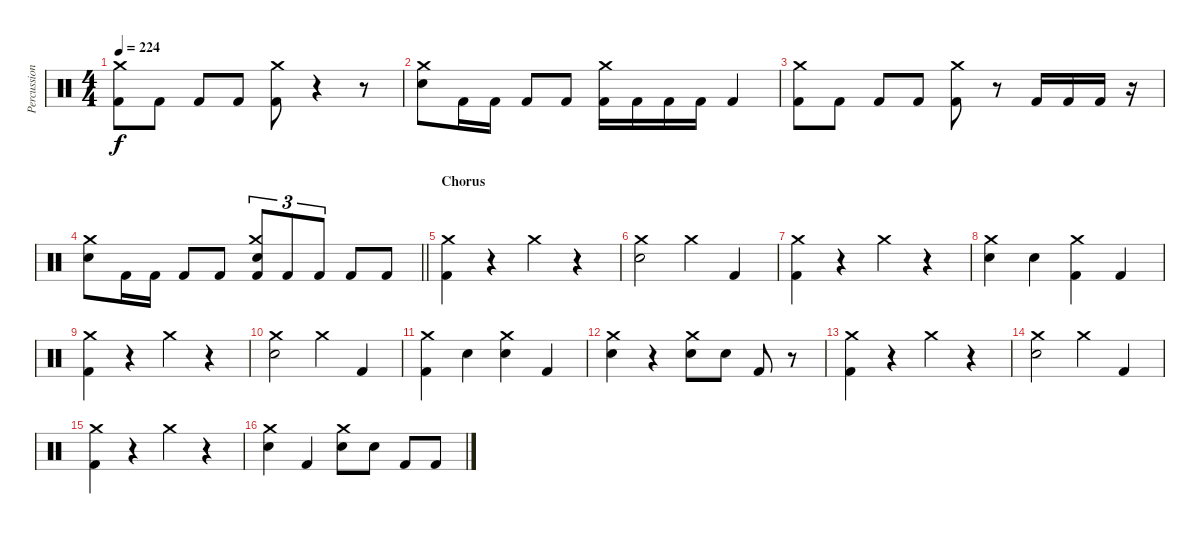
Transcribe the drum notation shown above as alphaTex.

\track ("Percussion" "Percussion") {instrument percussion}
\staff {score}
\articulation defaults
\ts (4 4)
\tempo 224
\clef neutral
\ks c
("Kick (hit) 2" "Crash medium (hit)").8{dy f} "Kick (hit) 2".8 "Kick (hit) 2".8 "Kick (hit) 2".8 ("Kick (hit) 2" "Crash medium (hit)").8 r.4 r.8 |
("Snare (hit) 2" "Crash medium (hit)").8 "Kick (hit) 2".16 "Kick (hit) 2".16 "Kick (hit) 2".8 "Kick (hit) 2".8 ("Kick (hit) 2" "Crash medium (hit)").16 "Kick (hit) 2".16 "Kick (hit) 2".16 "Kick (hit) 2".16 "Kick (hit) 2".4 |
("Kick (hit) 2" "Crash medium (hit)").8 "Kick (hit) 2".8 "Kick (hit) 2".8 "Kick (hit) 2".8 ("Kick (hit) 2" "Crash medium (hit)").8 r.8 "Kick (hit) 2".16 "Kick (hit) 2".16 "Kick (hit) 2".16 r.16 |
\barLineRight lightlight
("Snare (hit) 2" "Crash medium (hit)").8 "Kick (hit) 2".16 "Kick (hit) 2".16 "Kick (hit) 2".8 "Kick (hit) 2".8 ("Kick (hit) 2" "Snare (hit) 2" "Crash medium (hit)").8{tu (3 2)} "Kick (hit) 2".8{tu (3 2)} "Kick (hit) 2".8{tu (3 2)} "Kick (hit) 2".8 "Kick (hit) 2".8 |
\section ("" "Chorus")
("Kick (hit) 2" "Crash medium (hit)").4 r.4 "Crash medium (hit)".4 r.4 |
("Snare (hit) 2" "Crash medium (hit)").2 "Crash medium (hit)".4 "Kick (hit) 2".4 |
("Kick (hit) 2" "Crash medium (hit)").4 r.4 "Crash medium (hit)".4 r.4 |
("Snare (hit) 2" "Crash medium (hit)").4 "Snare (hit) 2".4 ("Kick (hit) 2" "Crash medium (hit)").4 "Kick (hit) 2".4 |
("Kick (hit) 2" "Crash medium (hit)").4 r.4 "Crash medium (hit)".4 r.4 |
("Snare (hit) 2" "Crash medium (hit)").2 "Crash medium (hit)".4 "Kick (hit) 2".4 |
("Kick (hit) 2" "Crash medium (hit)").4 "Snare (hit) 2".4 ("Snare (hit) 2" "Crash medium (hit)").4 "Kick (hit) 2".4 |
("Snare (hit) 2" "Crash medium (hit)").4 r.4 ("Snare (hit) 2" "Crash medium (hit)").8 "Snare (hit) 2".8 "Kick (hit) 2".8 r.8 |
("Kick (hit) 2" "Crash medium (hit)").4 r.4 "Crash medium (hit)".4 r.4 |
("Snare (hit) 2" "Crash medium (hit)").2 "Crash medium (hit)".4 "Kick (hit) 2".4 |
("Kick (hit) 2" "Crash medium (hit)").4 r.4 "Crash medium (hit)".4 r.4 |
("Snare (hit) 2" "Crash medium (hit)").4 "Kick (hit) 2".4 ("Snare (hit) 2" "Crash medium (hit)").8 "Snare (hit) 2".8 "Kick (hit) 2".8 "Kick (hit) 2".8
